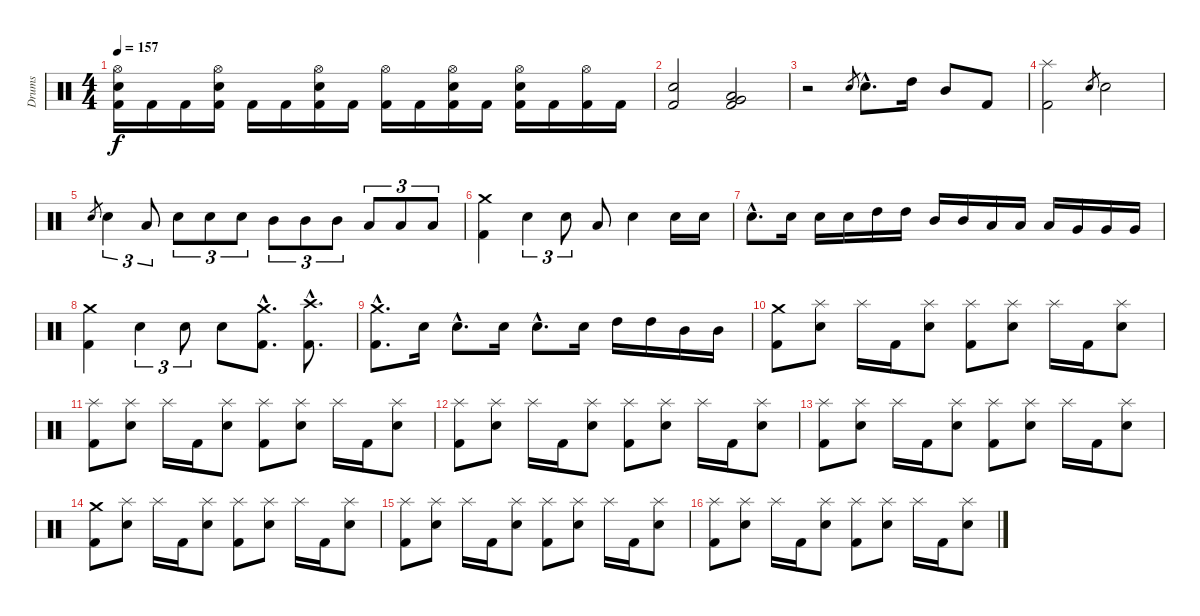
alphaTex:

\track ("Drums" "Drums") {instrument percussion}
\staff {score}
\articulation defaults
\ts (4 4)
\tempo 157
\clef neutral
\ks c
("Kick (hit) 2" "Electric Snare (hit)" "Hi-Hat (open)").16{dy f} "Kick (hit) 2".16 "Kick (hit) 2".16 ("Kick (hit) 2" "Electric Snare (hit)" "Hi-Hat (open)").16 "Kick (hit) 2".16 "Kick (hit) 2".16 ("Kick (hit) 2" "Electric Snare (hit)" "Hi-Hat (open)").16 "Kick (hit) 2".16 ("Kick (hit) 2" "Hi-Hat (open)").16 "Kick (hit) 2".16 ("Kick (hit) 2" "Electric Snare (hit)" "Hi-Hat (open)").16 "Kick (hit) 2".16 ("Kick (hit) 2" "Electric Snare (hit)" "Hi-Hat (open)").16 "Kick (hit) 2".16 ("Kick (hit) 2" "Hi-Hat (open)").16 "Kick (hit) 2".16 |
("Kick (hit) 2" "Electric Snare (hit)").2 ("Kick (hit) 2" "Low Tom (hit)" "Very Low Tom (hit)").2 |
r.2 "Electric Snare (hit)".8{gr} "Electric Snare (hit)"{hac}.8{d} "High Tom (hit)".16 "Mid Tom (hit)".8 "Kick (hit) 2".8 |
("Kick (hit) 2" "Splash (hit)").2 "Electric Snare (hit)".8{gr} "Electric Snare (hit)".2 |
"Electric Snare (hit)".8{gr} "Electric Snare (hit)".4{tu (3 2)} "Low Tom (hit)".8{tu (3 2)} "Electric Snare (hit)".8{tu (3 2)} "Electric Snare (hit)".8{tu (3 2)} "Electric Snare (hit)".8{tu (3 2)} "Mid Tom (hit)".8{tu (3 2)} "Mid Tom (hit)".8{tu (3 2)} "Mid Tom (hit)".8{tu (3 2)} "Low Tom (hit)".8{tu (3 2)} "Low Tom (hit)".8{tu (3 2)} "Low Tom (hit)".8{tu (3 2)} |
("Kick (hit) 2" "Crash medium (hit)").4 "Electric Snare (hit)".4{tu (3 2)} "Electric Snare (hit)".8{tu (3 2)} "Low Tom (hit)".8 "Electric Snare (hit)".4 "Electric Snare (hit)".16 "Electric Snare (hit)".16 |
"Electric Snare (hit)"{hac}.8{d} "Electric Snare (hit)".16 "Electric Snare (hit)".16 "Electric Snare (hit)".16 "High Tom (hit)".16 "High Tom (hit)".16 "Mid Tom (hit)".16 "Mid Tom (hit)".16 "Low Tom (hit)".16 "Low Tom (hit)".16 "Low Tom (hit)".16 "Very Low Tom (hit)".16 "Very Low Tom (hit)".16 "Very Low Tom (hit)".16 |
("Kick (hit) 2" "Crash medium (hit)").4 "Electric Snare (hit)".4{tu (3 2)} "Electric Snare (hit)".8{tu (3 2)} "Electric Snare (hit)".8 ("Kick (hit) 2"{hac} "Crash medium (hit)"{hac}).8{d} ("Kick (hit) 2"{hac} "Crash high (hit)"{hac}).8{d} |
("Kick (hit) 2"{hac} "Crash medium (hit)"{hac}).8{d} "Electric Snare (hit)".16 "Electric Snare (hit)"{hac}.8{d} "Electric Snare (hit)".16 "Electric Snare (hit)"{hac}.8{d} "Electric Snare (hit)".16 "High Tom (hit)".16 "High Tom (hit)".16 "Mid Tom (hit)".16 "Mid Tom (hit)".16 |
("Kick (hit) 2" "Crash medium (hit)").8 ("Electric Snare (hit)" "Splash (hit)").8 "Splash (hit)".16 "Kick (hit) 2".16 ("Electric Snare (hit)" "Splash (hit)").8 ("Kick (hit) 2" "Splash (hit)").8 ("Electric Snare (hit)" "Splash (hit)").8 "Splash (hit)".16 "Kick (hit) 2".16 ("Electric Snare (hit)" "Splash (hit)").8 |
("Kick (hit) 2" "Splash (hit)").8 ("Electric Snare (hit)" "Splash (hit)").8 "Splash (hit)".16 "Kick (hit) 2".16 ("Electric Snare (hit)" "Splash (hit)").8 ("Kick (hit) 2" "Splash (hit)").8 ("Electric Snare (hit)" "Splash (hit)").8 "Splash (hit)".16 "Kick (hit) 2".16 ("Electric Snare (hit)" "Splash (hit)").8 |
("Kick (hit) 2" "Splash (hit)").8 ("Electric Snare (hit)" "Splash (hit)").8 "Splash (hit)".16 "Kick (hit) 2".16 ("Electric Snare (hit)" "Splash (hit)").8 ("Kick (hit) 2" "Splash (hit)").8 ("Electric Snare (hit)" "Splash (hit)").8 "Splash (hit)".16 "Kick (hit) 2".16 ("Electric Snare (hit)" "Splash (hit)").8 |
("Kick (hit) 2" "Splash (hit)").8 ("Electric Snare (hit)" "Splash (hit)").8 "Splash (hit)".16 "Kick (hit) 2".16 ("Electric Snare (hit)" "Splash (hit)").8 ("Kick (hit) 2" "Splash (hit)").8 ("Electric Snare (hit)" "Splash (hit)").8 "Splash (hit)".16 "Kick (hit) 2".16 ("Electric Snare (hit)" "Splash (hit)").8 |
("Kick (hit) 2" "Crash medium (hit)").8 ("Electric Snare (hit)" "Splash (hit)").8 "Splash (hit)".16 "Kick (hit) 2".16 ("Electric Snare (hit)" "Splash (hit)").8 ("Kick (hit) 2" "Splash (hit)").8 ("Electric Snare (hit)" "Splash (hit)").8 "Splash (hit)".16 "Kick (hit) 2".16 ("Electric Snare (hit)" "Splash (hit)").8 |
("Kick (hit) 2" "Splash (hit)").8 ("Electric Snare (hit)" "Splash (hit)").8 "Splash (hit)".16 "Kick (hit) 2".16 ("Electric Snare (hit)" "Splash (hit)").8 ("Kick (hit) 2" "Splash (hit)").8 ("Electric Snare (hit)" "Splash (hit)").8 "Splash (hit)".16 "Kick (hit) 2".16 ("Electric Snare (hit)" "Splash (hit)").8 |
("Kick (hit) 2" "Splash (hit)").8 ("Electric Snare (hit)" "Splash (hit)").8 "Splash (hit)".16 "Kick (hit) 2".16 ("Electric Snare (hit)" "Splash (hit)").8 ("Kick (hit) 2" "Splash (hit)").8 ("Electric Snare (hit)" "Splash (hit)").8 "Splash (hit)".16 "Kick (hit) 2".16 ("Electric Snare (hit)" "Splash (hit)").8
